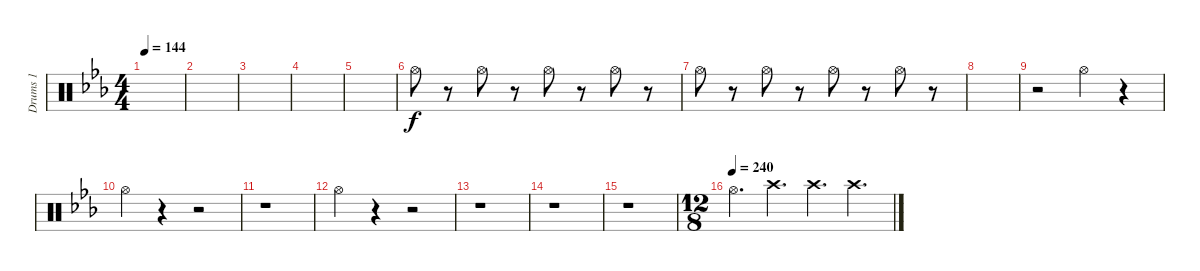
\track ("Drums 1" "Drums 1") {instrument percussion}
\staff {score}
\articulation defaults
\ts (4 4)
\tempo 144
\clef neutral
\ks eb
|
|
|
|
|
"Hi-Hat (open)".8 r.8 "Hi-Hat (open)".8 r.8 "Hi-Hat (open)".8 r.8 "Hi-Hat (open)".8 r.8 |
"Hi-Hat (open)".8 r.8 "Hi-Hat (open)".8 r.8 "Hi-Hat (open)".8 r.8 "Hi-Hat (open)".8 r.8 |
|
r.2 "Hi-Hat (open)".4 r.4 |
"Hi-Hat (open)".4 r.4 r.2 |
r.1 |
"Hi-Hat (open)".4 r.4 r.2 |
r.1 |
r.1 |
r.1 |
\ts (12 8)
\tempo (240)
"Hi-Hat (open)".4{d} "Crash high (hit)".4{d} "Crash high (hit)".4{d} "Crash high (hit)".4{d}
